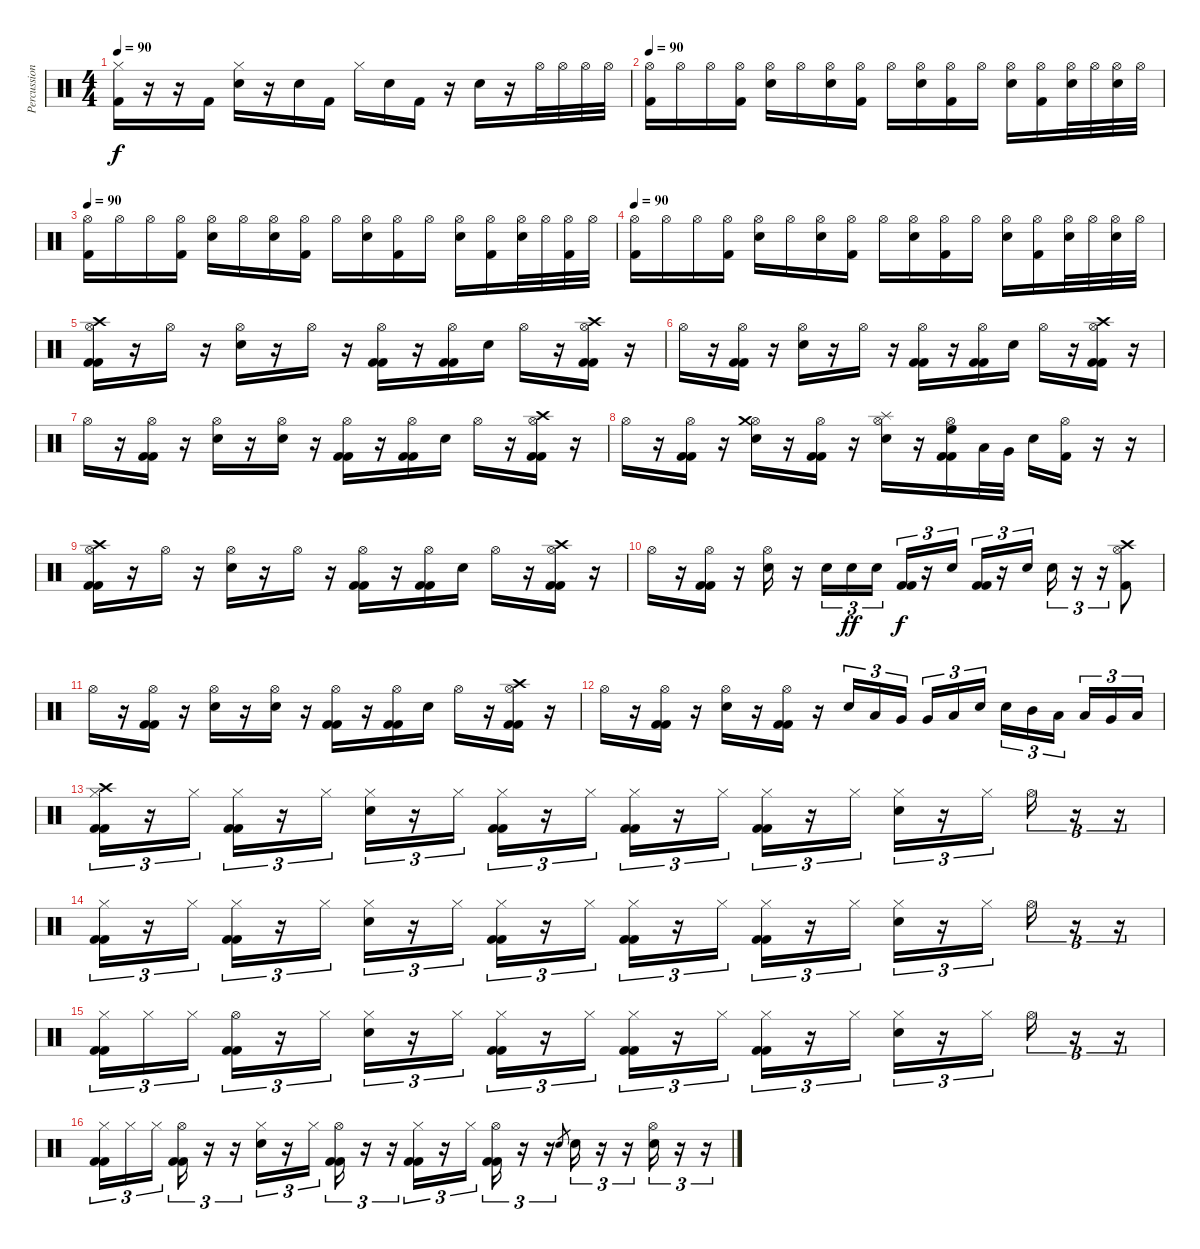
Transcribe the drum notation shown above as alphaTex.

\track ("Percussion" "Percussion") {instrument percussion}
\staff {score}
\articulation defaults
\ts (4 4)
\tempo 90
\clef neutral
\ks c
("Hi-Hat (closed)" "Kick (hit) 2").16{dy f} r.16 r.16 "Kick (hit) 2".16 ("Hi-Hat (closed)" "Snare (hit) 2").16 r.16 "Snare (hit) 2".16 "Kick (hit) 2".16 "Hi-Hat (closed)".16 "Snare (hit) 2".16 "Kick (hit) 2".16 r.16 "Snare (hit) 2".16 r.16 "Hi-Hat (open)".32 "Hi-Hat (open)".32 "Hi-Hat (open)".32 "Hi-Hat (open)".32 |
\tempo 90
("Hi-Hat (open)" "Kick (hit) 2").16 "Hi-Hat (open)".16 "Hi-Hat (open)".16 ("Hi-Hat (open)" "Kick (hit) 2").16 ("Hi-Hat (open)" "Snare (hit) 2").16 "Hi-Hat (open)".16 ("Hi-Hat (open)" "Snare (hit) 2").16 ("Hi-Hat (open)" "Kick (hit) 2").16 "Hi-Hat (open)".16 ("Hi-Hat (open)" "Snare (hit) 2").16 ("Hi-Hat (open)" "Kick (hit) 2").16 "Hi-Hat (open)".16 ("Hi-Hat (open)" "Snare (hit) 2").16 ("Hi-Hat (open)" "Kick (hit) 2").16 ("Hi-Hat (open)" "Snare (hit) 2").32 "Hi-Hat (open)".32 ("Hi-Hat (open)" "Snare (hit) 2").32 "Hi-Hat (open)".32 |
\tempo 90
("Hi-Hat (open)" "Kick (hit) 2").16 "Hi-Hat (open)".16 "Hi-Hat (open)".16 ("Hi-Hat (open)" "Kick (hit) 2").16 ("Hi-Hat (open)" "Snare (hit) 2").16 "Hi-Hat (open)".16 ("Hi-Hat (open)" "Snare (hit) 2").16 ("Hi-Hat (open)" "Kick (hit) 2").16 "Hi-Hat (open)".16 ("Hi-Hat (open)" "Snare (hit) 2").16 ("Hi-Hat (open)" "Kick (hit) 2").16 "Hi-Hat (open)".16 ("Hi-Hat (open)" "Snare (hit) 2").16 ("Hi-Hat (open)" "Kick (hit) 2").16 ("Hi-Hat (open)" "Snare (hit) 2").32 "Hi-Hat (open)".32 ("Hi-Hat (open)" "Kick (hit) 2").32 "Hi-Hat (open)".32 |
\tempo 90
("Hi-Hat (open)" "Kick (hit) 2").16 "Hi-Hat (open)".16 "Hi-Hat (open)".16 ("Hi-Hat (open)" "Kick (hit) 2").16 ("Hi-Hat (open)" "Snare (hit) 2").16 "Hi-Hat (open)".16 ("Hi-Hat (open)" "Snare (hit) 2").16 ("Hi-Hat (open)" "Kick (hit) 2").16 "Hi-Hat (open)".16 ("Hi-Hat (open)" "Snare (hit) 2").16 ("Hi-Hat (open)" "Kick (hit) 2").16 "Hi-Hat (open)".16 ("Hi-Hat (open)" "Snare (hit) 2").16 ("Hi-Hat (open)" "Kick (hit) 2").16 ("Hi-Hat (open)" "Snare (hit) 2").32 "Hi-Hat (open)".32 ("Hi-Hat (open)" "Snare (hit) 2").32 "Hi-Hat (open)".32 |
("Hi-Hat (open)" "Crash high (hit)" "Kick (hit) 2" "Kick (hit) 2").16 r.16 "Hi-Hat (open)".16 r.16 ("Hi-Hat (open)" "Electric Snare (hit)").16 r.16 "Hi-Hat (open)".16 r.16 ("Hi-Hat (open)" "Kick (hit) 2" "Kick (hit) 2").16 r.16 ("Hi-Hat (open)" "Kick (hit) 2" "Kick (hit) 2").16 "Electric Snare (hit)".16 "Hi-Hat (open)".16 r.16 ("Hi-Hat (open)" "Crash high (hit)" "Kick (hit) 2" "Kick (hit) 2").16 r.16 |
"Hi-Hat (open)".16 r.16 ("Hi-Hat (open)" "Kick (hit) 2" "Kick (hit) 2").16 r.16 ("Hi-Hat (open)" "Electric Snare (hit)").16 r.16 "Hi-Hat (open)".16 r.16 ("Hi-Hat (open)" "Kick (hit) 2" "Kick (hit) 2").16 r.16 ("Hi-Hat (open)" "Kick (hit) 2" "Kick (hit) 2").16 "Electric Snare (hit)".16 "Hi-Hat (open)".16 r.16 ("Hi-Hat (open)" "Crash high (hit)" "Kick (hit) 2" "Kick (hit) 2").16 r.16 |
"Hi-Hat (open)".16 r.16 ("Hi-Hat (open)" "Kick (hit) 2" "Kick (hit) 2").16 r.16 ("Hi-Hat (open)" "Electric Snare (hit)").16 r.16 ("Hi-Hat (open)" "Electric Snare (hit)").16 r.16 ("Hi-Hat (open)" "Kick (hit) 2" "Kick (hit) 2").16 r.16 ("Hi-Hat (open)" "Kick (hit) 2" "Kick (hit) 2").16 "Electric Snare (hit)".16 "Hi-Hat (open)".16 r.16 ("Hi-Hat (open)" "Crash high (hit)" "Kick (hit) 2" "Kick (hit) 2").16 r.16 |
"Hi-Hat (open)".16 r.16 ("Hi-Hat (open)" "Kick (hit) 2" "Kick (hit) 2").16 r.16 ("Hi-Hat (open)" "Crash medium (hit)" "Electric Snare (hit)").16 r.16 ("Hi-Hat (open)" "Kick (hit) 2" "Kick (hit) 2").16 r.16 ("Hi-Hat (open)" "Splash (hit)" "Electric Snare (hit)").16 r.16 ("Hi-Hat (open)" "High Floor Tom (hit)" "Kick (hit) 2" "Kick (hit) 2").16 "Low Tom (hit)".32 "Very Low Tom (hit)".32 "Electric Snare (hit)".16 ("Hi-Hat (open)" "Kick (hit) 2").16 r.16 r.16 |
("Hi-Hat (open)" "Crash high (hit)" "Kick (hit) 2" "Kick (hit) 2").16 r.16 "Hi-Hat (open)".16 r.16 ("Hi-Hat (open)" "Electric Snare (hit)").16 r.16 "Hi-Hat (open)".16 r.16 ("Hi-Hat (open)" "Kick (hit) 2" "Kick (hit) 2").16 r.16 ("Hi-Hat (open)" "Kick (hit) 2" "Kick (hit) 2").16 "Electric Snare (hit)".16 "Hi-Hat (open)".16 r.16 ("Hi-Hat (open)" "Crash high (hit)" "Kick (hit) 2" "Kick (hit) 2").16 r.16 |
"Hi-Hat (open)".16 r.16 ("Hi-Hat (open)" "Kick (hit) 2" "Kick (hit) 2").16 r.16 ("Hi-Hat (open)" "Electric Snare (hit)").16 r.16 "Electric Snare (hit)".16{tu (3 2)} "Electric Snare (hit)".16{tu (3 2) dy ff} "Electric Snare (hit)".16{tu (3 2)} ("Kick (hit) 2" "Kick (hit) 2").16{tu (3 2) dy f} r.16{tu (3 2)} "Electric Snare (hit)".16{tu (3 2)} ("Kick (hit) 2" "Kick (hit) 2").16{tu (3 2)} r.16{tu (3 2)} "Electric Snare (hit)".16{tu (3 2)} "Electric Snare (hit)".16{tu (3 2)} r.16{tu (3 2)} r.16{tu (3 2)} ("Hi-Hat (open)" "Crash high (hit)" "Kick (hit) 2").8 |
"Hi-Hat (open)".16 r.16 ("Hi-Hat (open)" "Kick (hit) 2" "Kick (hit) 2").16 r.16 ("Hi-Hat (open)" "Electric Snare (hit)").16 r.16 ("Hi-Hat (open)" "Electric Snare (hit)").16 r.16 ("Hi-Hat (open)" "Kick (hit) 2" "Kick (hit) 2").16 r.16 ("Hi-Hat (open)" "Kick (hit) 2" "Kick (hit) 2").16 "Electric Snare (hit)".16 "Hi-Hat (open)".16 r.16 ("Hi-Hat (open)" "Crash high (hit)" "Kick (hit) 2" "Kick (hit) 2").16 r.16 |
"Hi-Hat (open)".16 r.16 ("Hi-Hat (open)" "Kick (hit) 2" "Kick (hit) 2").16 r.16 ("Hi-Hat (open)" "Electric Snare (hit)").16 r.16 ("Hi-Hat (open)" "Kick (hit) 2" "Kick (hit) 2").16 r.16 "Electric Snare (hit)".16{tu (3 2)} "Low Tom (hit)".16{tu (3 2)} "Very Low Tom (hit)".16{tu (3 2)} "Very Low Tom (hit)".16{tu (3 2)} "Low Floor Tom (hit)".16{tu (3 2)} "Electric Snare (hit)".16{tu (3 2)} "Electric Snare (hit)".16{tu (3 2)} "Mid Tom (hit)".16{tu (3 2)} "Low Tom (hit)".16{tu (3 2)} "Low Tom (hit)".16{tu (3 2)} "Very Low Tom (hit)".16{tu (3 2)} "Low Floor Tom (hit)".16{tu (3 2)} |
("Hi-Hat (closed)" "Crash high (hit)" "Kick (hit) 2" "Kick (hit) 2").16{tu (3 2)} r.16{tu (3 2)} "Hi-Hat (closed)".16{tu (3 2)} ("Hi-Hat (closed)" "Kick (hit) 2" "Kick (hit) 2").16{tu (3 2)} r.16{tu (3 2)} "Hi-Hat (closed)".16{tu (3 2)} ("Hi-Hat (closed)" "Electric Snare (hit)").16{tu (3 2)} r.16{tu (3 2)} "Hi-Hat (closed)".16{tu (3 2)} ("Hi-Hat (closed)" "Kick (hit) 2" "Kick (hit) 2").16{tu (3 2)} r.16{tu (3 2)} "Hi-Hat (closed)".16{tu (3 2)} ("Hi-Hat (closed)" "Kick (hit) 2" "Kick (hit) 2").16{tu (3 2)} r.16{tu (3 2)} "Hi-Hat (closed)".16{tu (3 2)} ("Hi-Hat (closed)" "Kick (hit) 2" "Kick (hit) 2").16{tu (3 2)} r.16{tu (3 2)} "Hi-Hat (closed)".16{tu (3 2)} ("Hi-Hat (closed)" "Electric Snare (hit)").16{tu (3 2)} r.16{tu (3 2)} "Hi-Hat (closed)".16{tu (3 2)} "Hi-Hat (open)".16{tu (3 2)} r.16{tu (3 2)} r.16{tu (3 2)} |
("Hi-Hat (closed)" "Kick (hit) 2" "Kick (hit) 2").16{tu (3 2)} r.16{tu (3 2)} "Hi-Hat (closed)".16{tu (3 2)} ("Hi-Hat (closed)" "Kick (hit) 2" "Kick (hit) 2").16{tu (3 2)} r.16{tu (3 2)} "Hi-Hat (closed)".16{tu (3 2)} ("Hi-Hat (closed)" "Electric Snare (hit)").16{tu (3 2)} r.16{tu (3 2)} "Hi-Hat (closed)".16{tu (3 2)} ("Hi-Hat (closed)" "Kick (hit) 2" "Kick (hit) 2").16{tu (3 2)} r.16{tu (3 2)} "Hi-Hat (closed)".16{tu (3 2)} ("Hi-Hat (closed)" "Kick (hit) 2" "Kick (hit) 2").16{tu (3 2)} r.16{tu (3 2)} "Hi-Hat (closed)".16{tu (3 2)} ("Hi-Hat (closed)" "Kick (hit) 2" "Kick (hit) 2").16{tu (3 2)} r.16{tu (3 2)} "Hi-Hat (closed)".16{tu (3 2)} ("Hi-Hat (closed)" "Electric Snare (hit)").16{tu (3 2)} r.16{tu (3 2)} "Hi-Hat (closed)".16{tu (3 2)} "Hi-Hat (open)".16{tu (3 2)} r.16{tu (3 2)} r.16{tu (3 2)} |
("Hi-Hat (closed)" "Kick (hit) 2" "Kick (hit) 2").16{tu (3 2)} "Hi-Hat (closed)".16{tu (3 2)} "Hi-Hat (closed)".16{tu (3 2)} ("Hi-Hat (open)" "Kick (hit) 2" "Kick (hit) 2").16{tu (3 2)} r.16{tu (3 2)} "Hi-Hat (closed)".16{tu (3 2)} ("Hi-Hat (closed)" "Electric Snare (hit)").16{tu (3 2)} r.16{tu (3 2)} "Hi-Hat (closed)".16{tu (3 2)} ("Hi-Hat (closed)" "Kick (hit) 2" "Kick (hit) 2").16{tu (3 2)} r.16{tu (3 2)} "Hi-Hat (closed)".16{tu (3 2)} ("Hi-Hat (closed)" "Kick (hit) 2" "Kick (hit) 2").16{tu (3 2)} r.16{tu (3 2)} "Hi-Hat (closed)".16{tu (3 2)} ("Hi-Hat (closed)" "Kick (hit) 2" "Kick (hit) 2").16{tu (3 2)} r.16{tu (3 2)} "Hi-Hat (closed)".16{tu (3 2)} ("Hi-Hat (closed)" "Electric Snare (hit)").16{tu (3 2)} r.16{tu (3 2)} "Hi-Hat (closed)".16{tu (3 2)} "Hi-Hat (open)".16{tu (3 2)} r.16{tu (3 2)} r.16{tu (3 2)} |
("Hi-Hat (closed)" "Kick (hit) 2" "Kick (hit) 2").16{tu (3 2)} "Hi-Hat (closed)".16{tu (3 2)} "Hi-Hat (closed)".16{tu (3 2)} ("Hi-Hat (open)" "Kick (hit) 2" "Kick (hit) 2").16{tu (3 2)} r.16{tu (3 2)} r.16{tu (3 2)} ("Hi-Hat (closed)" "Electric Snare (hit)").16{tu (3 2)} r.16{tu (3 2)} "Hi-Hat (closed)".16{tu (3 2)} ("Hi-Hat (open)" "Kick (hit) 2" "Kick (hit) 2").16{tu (3 2)} r.16{tu (3 2)} r.16{tu (3 2)} ("Hi-Hat (closed)" "Kick (hit) 2" "Kick (hit) 2").16{tu (3 2)} r.16{tu (3 2)} "Hi-Hat (closed)".16{tu (3 2)} ("Hi-Hat (open)" "Kick (hit) 2" "Kick (hit) 2").16{tu (3 2)} r.16{tu (3 2)} r.16{tu (3 2)} "Electric Snare (hit)".8{gr} "Electric Snare (hit)".16{tu (3 2)} r.16{tu (3 2)} r.16{tu (3 2)} ("Hi-Hat (open)" "Electric Snare (hit)").16{tu (3 2)} r.16{tu (3 2)} r.16{tu (3 2)}
